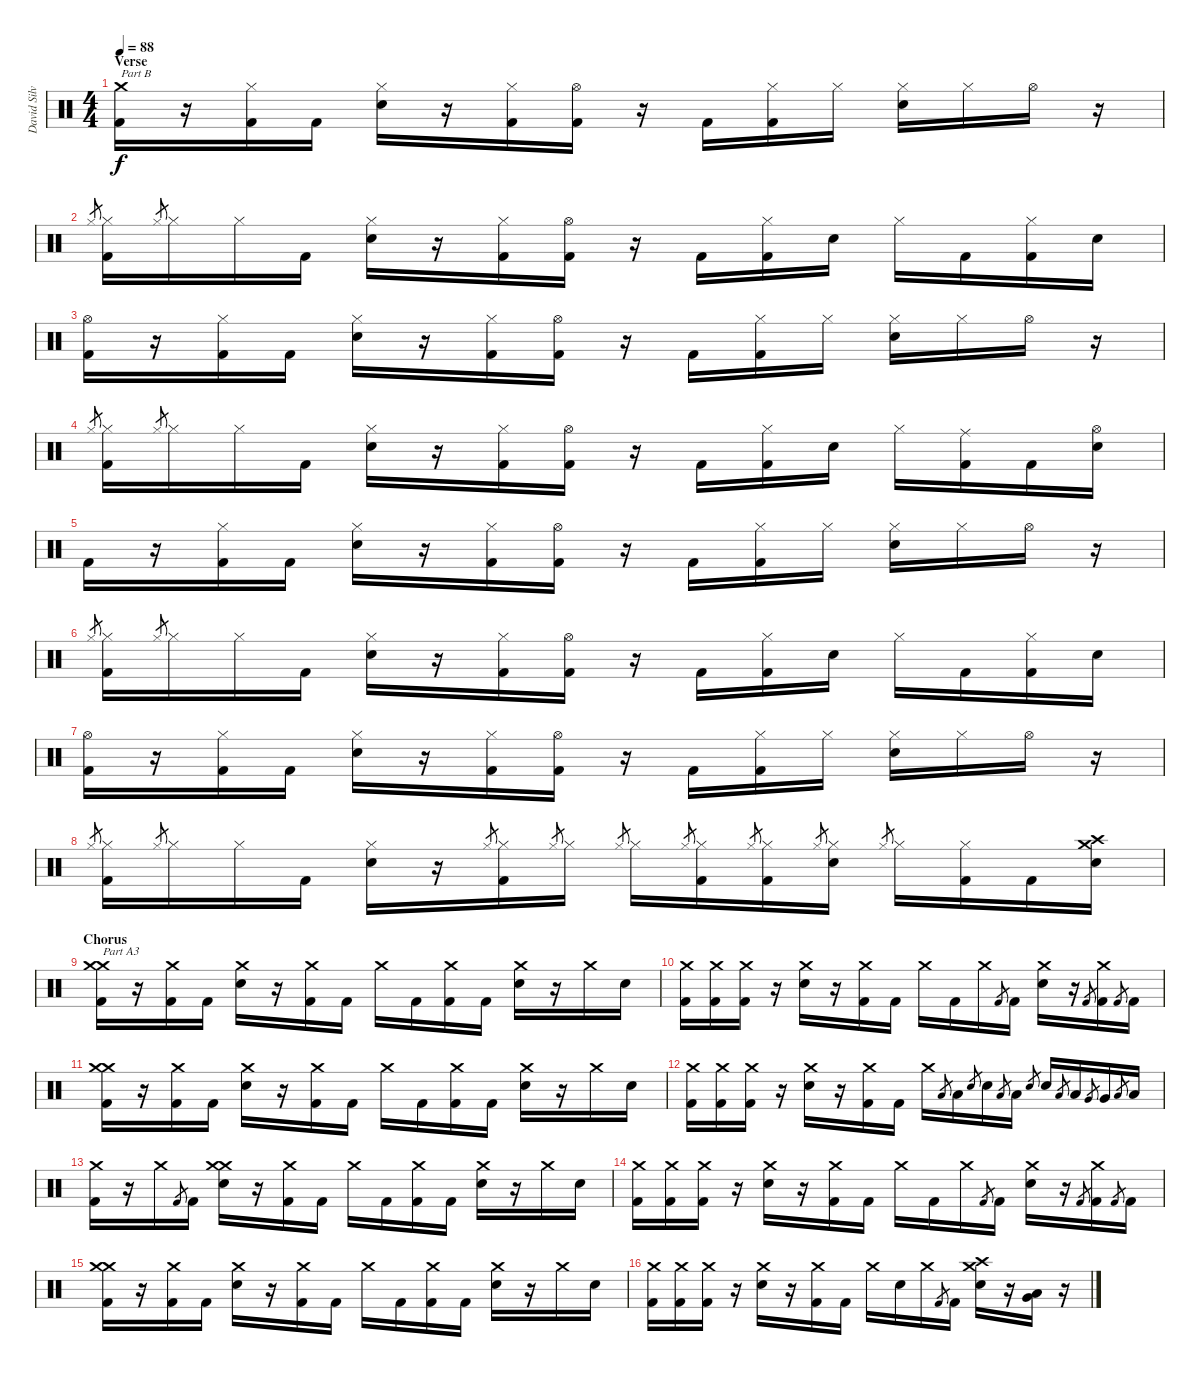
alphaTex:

\track ("David Silveria" "David Silv") {instrument percussion}
\staff {score}
\articulation defaults
\ts (4 4)
\section ("" "Verse")
\tempo 88
\clef neutral
\ks c
("Crash medium (hit)" "Kick (hit) 2").16{txt "Part B" dy f} r.16 ("Hi-Hat (closed)" "Kick (hit) 2").16 "Kick (hit) 2".16 ("Hi-Hat (closed)" "Snare (hit) 2").16 r.16 ("Hi-Hat (closed)" "Kick (hit) 2").16 ("Hi-Hat (open)" "Kick (hit) 2").16 r.16 "Kick (hit) 2".16 ("Hi-Hat (closed)" "Kick (hit) 2").16 "Hi-Hat (closed)".16 ("Hi-Hat (closed)" "Snare (hit) 2").16 "Hi-Hat (closed)".16 "Hi-Hat (open)".16 r.16 |
"Hi-Hat (closed)".8{gr} ("Hi-Hat (closed)" "Kick (hit) 2").16 "Hi-Hat (closed)".8{gr} "Hi-Hat (closed)".16 "Hi-Hat (closed)".16 "Kick (hit) 2".16 ("Hi-Hat (closed)" "Snare (hit) 2").16 r.16 ("Hi-Hat (closed)" "Kick (hit) 2").16 ("Hi-Hat (open)" "Kick (hit) 2").16 r.16 "Kick (hit) 2".16 ("Hi-Hat (closed)" "Kick (hit) 2").16 "Snare (hit) 2".16 "Hi-Hat (closed)".16 "Kick (hit) 2".16 ("Hi-Hat (closed)" "Kick (hit) 2").16 "Snare (hit) 2".16 |
("Hi-Hat (open)" "Kick (hit) 2").16 r.16 ("Hi-Hat (closed)" "Kick (hit) 2").16 "Kick (hit) 2".16 ("Hi-Hat (closed)" "Snare (hit) 2").16 r.16 ("Hi-Hat (closed)" "Kick (hit) 2").16 ("Hi-Hat (open)" "Kick (hit) 2").16 r.16 "Kick (hit) 2".16 ("Hi-Hat (closed)" "Kick (hit) 2").16 "Hi-Hat (closed)".16 ("Hi-Hat (closed)" "Snare (hit) 2").16 "Hi-Hat (closed)".16 "Hi-Hat (open)".16 r.16 |
"Hi-Hat (closed)".8{gr} ("Hi-Hat (closed)" "Kick (hit) 2").16 "Hi-Hat (closed)".8{gr} "Hi-Hat (closed)".16 "Hi-Hat (closed)".16 "Kick (hit) 2".16 ("Hi-Hat (closed)" "Snare (hit) 2").16 r.16 ("Hi-Hat (closed)" "Kick (hit) 2").16 ("Hi-Hat (open)" "Kick (hit) 2").16 r.16 "Kick (hit) 2".16 ("Hi-Hat (closed)" "Kick (hit) 2").16 "Snare (hit) 2".16 "Hi-Hat (closed)".16 ("Ride (middle)" "Kick (hit) 2").16 "Kick (hit) 2".16 ("Hi-Hat (open)" "Snare (hit) 2").16 |
"Kick (hit) 2".16 r.16 ("Hi-Hat (closed)" "Kick (hit) 2").16 "Kick (hit) 2".16 ("Hi-Hat (closed)" "Snare (hit) 2").16 r.16 ("Hi-Hat (closed)" "Kick (hit) 2").16 ("Hi-Hat (open)" "Kick (hit) 2").16 r.16 "Kick (hit) 2".16 ("Hi-Hat (closed)" "Kick (hit) 2").16 "Hi-Hat (closed)".16 ("Hi-Hat (closed)" "Snare (hit) 2").16 "Hi-Hat (closed)".16 "Hi-Hat (open)".16 r.16 |
"Hi-Hat (closed)".8{gr} ("Hi-Hat (closed)" "Kick (hit) 2").16 "Hi-Hat (closed)".8{gr} "Hi-Hat (closed)".16 "Hi-Hat (closed)".16 "Kick (hit) 2".16 ("Hi-Hat (closed)" "Snare (hit) 2").16 r.16 ("Hi-Hat (closed)" "Kick (hit) 2").16 ("Hi-Hat (open)" "Kick (hit) 2").16 r.16 "Kick (hit) 2".16 ("Hi-Hat (closed)" "Kick (hit) 2").16 "Snare (hit) 2".16 "Hi-Hat (closed)".16 "Kick (hit) 2".16 ("Hi-Hat (closed)" "Kick (hit) 2").16 "Snare (hit) 2".16 |
("Hi-Hat (open)" "Kick (hit) 2").16 r.16 ("Hi-Hat (closed)" "Kick (hit) 2").16 "Kick (hit) 2".16 ("Hi-Hat (closed)" "Snare (hit) 2").16 r.16 ("Hi-Hat (closed)" "Kick (hit) 2").16 ("Hi-Hat (open)" "Kick (hit) 2").16 r.16 "Kick (hit) 2".16 ("Hi-Hat (closed)" "Kick (hit) 2").16 "Hi-Hat (closed)".16 ("Hi-Hat (closed)" "Snare (hit) 2").16 "Hi-Hat (closed)".16 "Hi-Hat (open)".16 r.16 |
"Hi-Hat (closed)".8{gr} ("Hi-Hat (closed)" "Kick (hit) 2").16 "Hi-Hat (closed)".8{gr} "Hi-Hat (closed)".16 "Hi-Hat (closed)".16 "Kick (hit) 2".16 ("Hi-Hat (closed)" "Snare (hit) 2").16 r.16 "Hi-Hat (closed)".8{gr} ("Hi-Hat (closed)" "Kick (hit) 2").16 "Hi-Hat (closed)".8{gr} "Hi-Hat (closed)".16 "Hi-Hat (closed)".8{gr} "Hi-Hat (closed)".16 "Hi-Hat (closed)".8{gr} ("Hi-Hat (closed)" "Kick (hit) 2").16 "Hi-Hat (closed)".8{gr} ("Hi-Hat (closed)" "Kick (hit) 2").16 "Hi-Hat (closed)".8{gr} ("Hi-Hat (closed)" "Snare (hit) 2").16 "Hi-Hat (closed)".8{gr} "Hi-Hat (closed)".16 ("Hi-Hat (closed)" "Kick (hit) 2").16 "Kick (hit) 2".16 ("Crash medium (hit)" "Crash high (hit)" "Snare (hit) 2").16 |
\section ("" "Chorus")
("Crash medium (hit)" "Crash medium (hit)" "Kick (hit) 2").16{txt "Part A3"} r.16 ("Crash medium (hit)" "Kick (hit) 2").16 "Kick (hit) 2".16 ("Crash medium (hit)" "Snare (hit) 2").16 r.16 ("Crash medium (hit)" "Kick (hit) 2").16 "Kick (hit) 2".16 "Crash medium (hit)".16 "Kick (hit) 2".16 ("Crash medium (hit)" "Kick (hit) 2").16 "Kick (hit) 2".16 ("Crash medium (hit)" "Snare (hit) 2").16 r.16 "Crash medium (hit)".16 "Snare (hit) 2".16 |
("Crash medium (hit)" "Kick (hit) 2").16 ("Crash medium (hit)" "Kick (hit) 2").16 ("Crash medium (hit)" "Kick (hit) 2").16 r.16 ("Crash medium (hit)" "Snare (hit) 2").16 r.16 ("Crash medium (hit)" "Kick (hit) 2").16 "Kick (hit) 2".16 "Crash medium (hit)".16 "Kick (hit) 2".16 "Crash medium (hit)".16 "Kick (hit) 2".8{gr} "Kick (hit) 2".16 ("Crash medium (hit)" "Snare (hit) 2").16 r.16 "Kick (hit) 2".8{gr} ("Crash medium (hit)" "Kick (hit) 2").16 "Kick (hit) 2".8{gr} "Kick (hit) 2".16 |
("Crash medium (hit)" "Crash medium (hit)" "Kick (hit) 2").16 r.16 ("Crash medium (hit)" "Kick (hit) 2").16 "Kick (hit) 2".16 ("Crash medium (hit)" "Snare (hit) 2").16 r.16 ("Crash medium (hit)" "Kick (hit) 2").16 "Kick (hit) 2".16 "Crash medium (hit)".16 "Kick (hit) 2".16 ("Crash medium (hit)" "Kick (hit) 2").16 "Kick (hit) 2".16 ("Crash medium (hit)" "Snare (hit) 2").16 r.16 "Crash medium (hit)".16 "Snare (hit) 2".16 |
("Crash medium (hit)" "Kick (hit) 2").16 ("Crash medium (hit)" "Kick (hit) 2").16 ("Crash medium (hit)" "Kick (hit) 2").16 r.16 ("Crash medium (hit)" "Snare (hit) 2").16 r.16 ("Crash medium (hit)" "Kick (hit) 2").16 "Kick (hit) 2".16 "Crash medium (hit)".16 "Low Tom (hit)".8{gr} "Low Tom (hit)".16 "Snare (hit) 2".8{gr} "Snare (hit) 2".16 "Low Tom (hit)".8{gr} "Low Tom (hit)".16 "Snare (hit) 2".8{gr} "Snare (hit) 2".16 "Low Tom (hit)".8{gr} "Low Tom (hit)".16 "Very Low Tom (hit)".8{gr} "Very Low Tom (hit)".16 "Low Floor Tom (hit)".8{gr} "Low Floor Tom (hit)".16 |
("Crash medium (hit)" "Kick (hit) 2").16 r.16 "Crash medium (hit)".16 "Kick (hit) 2".8{gr} "Kick (hit) 2".16 ("Crash medium (hit)" "Crash medium (hit)" "Snare (hit) 2").16 r.16 ("Crash medium (hit)" "Kick (hit) 2").16 "Kick (hit) 2".16 "Crash medium (hit)".16 "Kick (hit) 2".16 ("Crash medium (hit)" "Kick (hit) 2").16 "Kick (hit) 2".16 ("Crash medium (hit)" "Snare (hit) 2").16 r.16 "Crash medium (hit)".16 "Snare (hit) 2".16 |
("Crash medium (hit)" "Kick (hit) 2").16 ("Crash medium (hit)" "Kick (hit) 2").16 ("Crash medium (hit)" "Kick (hit) 2").16 r.16 ("Crash medium (hit)" "Snare (hit) 2").16 r.16 ("Crash medium (hit)" "Kick (hit) 2").16 "Kick (hit) 2".16 "Crash medium (hit)".16 "Kick (hit) 2".16 "Crash medium (hit)".16 "Kick (hit) 2".8{gr} "Kick (hit) 2".16 ("Crash medium (hit)" "Snare (hit) 2").16 r.16 "Kick (hit) 2".8{gr} ("Crash medium (hit)" "Kick (hit) 2").16 "Kick (hit) 2".8{gr} "Kick (hit) 2".16 |
("Crash medium (hit)" "Crash medium (hit)" "Kick (hit) 2").16 r.16 ("Crash medium (hit)" "Kick (hit) 2").16 "Kick (hit) 2".16 ("Crash medium (hit)" "Snare (hit) 2").16 r.16 ("Crash medium (hit)" "Kick (hit) 2").16 "Kick (hit) 2".16 "Crash medium (hit)".16 "Kick (hit) 2".16 ("Crash medium (hit)" "Kick (hit) 2").16 "Kick (hit) 2".16 ("Crash medium (hit)" "Snare (hit) 2").16 r.16 "Crash medium (hit)".16 "Snare (hit) 2".16 |
("Crash medium (hit)" "Kick (hit) 2").16 ("Crash medium (hit)" "Kick (hit) 2").16 ("Crash medium (hit)" "Kick (hit) 2").16 r.16 ("Crash medium (hit)" "Snare (hit) 2").16 r.16 ("Crash medium (hit)" "Kick (hit) 2").16 "Kick (hit) 2".16 "Crash medium (hit)".16 "Snare (hit) 2".16 "Crash medium (hit)".16 "Kick (hit) 2".8{gr} "Kick (hit) 2".16 ("Crash high (hit)" "Crash medium (hit)" "Snare (hit) 2").16 r.16 ("Very Low Tom (hit)" "Low Floor Tom (hit)").16 r.16
